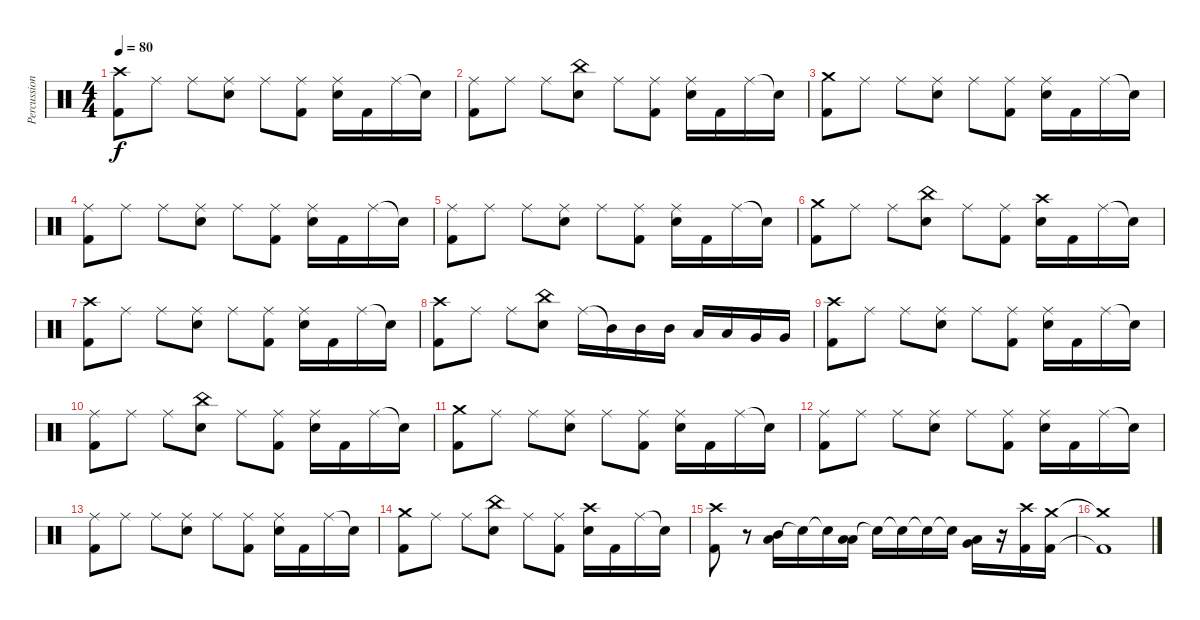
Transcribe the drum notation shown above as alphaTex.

\track ("Percussion" "Percussion") {instrument percussion}
\staff {score}
\articulation defaults
\ts (4 4)
\tempo 80
\clef neutral
\ks c
("Kick (hit) 2" "Crash high (hit)").8{dy f} "Ride (middle)".8 "Ride (middle)".8 ("Electric Snare (hit)" "Ride (middle)").8 "Ride (middle)".8 ("Kick (hit) 2" "Ride (middle)").8 ("Electric Snare (hit)" "Ride (middle)").16 "Kick (hit) 2".16 "Ride (middle)".16 "Snare (hit)"{t}.16 |
("Kick (hit) 2" "Ride (middle)").8 "Ride (middle)".8 "Ride (middle)".8 ("Electric Snare (hit)" "China (hit)").8 "Ride (middle)".8 ("Kick (hit) 2" "Ride (middle)").8 ("Electric Snare (hit)" "Ride (middle)").16 "Kick (hit) 2".16 "Ride (middle)".16 "Snare (hit)"{t}.16 |
("Kick (hit) 2" "Crash medium (hit)").8 "Ride (middle)".8 "Ride (middle)".8 ("Electric Snare (hit)" "Ride (middle)").8 "Ride (middle)".8 ("Kick (hit) 2" "Ride (middle)").8 ("Electric Snare (hit)" "Ride (middle)").16 "Kick (hit) 2".16 "Ride (middle)".16 "Snare (hit)"{t}.16 |
("Kick (hit) 2" "Ride (middle)").8 "Ride (middle)".8 "Ride (middle)".8 ("Electric Snare (hit)" "Ride (middle)").8 "Ride (middle)".8 ("Kick (hit) 2" "Ride (middle)").8 ("Electric Snare (hit)" "Ride (middle)").16 "Kick (hit) 2".16 "Ride (middle)".16 "Snare (hit)"{t}.16 |
("Kick (hit) 2" "Ride (middle)").8 "Ride (middle)".8 "Ride (middle)".8 ("Electric Snare (hit)" "Ride (middle)").8 "Ride (middle)".8 ("Kick (hit) 2" "Ride (middle)").8 ("Electric Snare (hit)" "Ride (middle)").16 "Kick (hit) 2".16 "Ride (middle)".16 "Snare (hit)"{t}.16 |
("Kick (hit) 2" "Crash medium (hit)").8 "Ride (middle)".8 "Ride (middle)".8 ("Electric Snare (hit)" "China (hit)").8 "Ride (middle)".8 ("Kick (hit) 2" "Ride (middle)").8 ("Electric Snare (hit)" "Crash high (hit)").16 "Kick (hit) 2".16 "Ride (middle)".16 "Snare (hit)"{t}.16 |
("Kick (hit) 2" "Crash high (hit)").8 "Ride (middle)".8 "Ride (middle)".8 ("Electric Snare (hit)" "Ride (middle)").8 "Ride (middle)".8 ("Kick (hit) 2" "Ride (middle)").8 ("Electric Snare (hit)" "Ride (middle)").16 "Kick (hit) 2".16 "Ride (middle)".16 "Snare (hit)"{t}.16 |
("Kick (hit) 2" "Crash high (hit)").8 "Ride (middle)".8 "Ride (middle)".8 ("Electric Snare (hit)" "China (hit)").8 "Ride (middle)".16 "Mid Tom (hit)"{t}.16 "Mid Tom (hit)".16 "Mid Tom (hit)".16 "Low Tom (hit)".16 "Low Tom (hit)".16 "Very Low Tom (hit)".16 "Very Low Tom (hit)".16 |
("Kick (hit) 2" "Crash high (hit)").8 "Ride (middle)".8 "Ride (middle)".8 ("Electric Snare (hit)" "Ride (middle)").8 "Ride (middle)".8 ("Kick (hit) 2" "Ride (middle)").8 ("Electric Snare (hit)" "Ride (middle)").16 "Kick (hit) 2".16 "Ride (middle)".16 "Snare (hit)"{t}.16 |
("Kick (hit) 2" "Ride (middle)").8 "Ride (middle)".8 "Ride (middle)".8 ("Electric Snare (hit)" "China (hit)").8 "Ride (middle)".8 ("Kick (hit) 2" "Ride (middle)").8 ("Electric Snare (hit)" "Ride (middle)").16 "Kick (hit) 2".16 "Ride (middle)".16 "Snare (hit)"{t}.16 |
("Kick (hit) 2" "Crash medium (hit)").8 "Ride (middle)".8 "Ride (middle)".8 ("Electric Snare (hit)" "Ride (middle)").8 "Ride (middle)".8 ("Kick (hit) 2" "Ride (middle)").8 ("Electric Snare (hit)" "Ride (middle)").16 "Kick (hit) 2".16 "Ride (middle)".16 "Snare (hit)"{t}.16 |
("Kick (hit) 2" "Ride (middle)").8 "Ride (middle)".8 "Ride (middle)".8 ("Electric Snare (hit)" "Ride (middle)").8 "Ride (middle)".8 ("Kick (hit) 2" "Ride (middle)").8 ("Electric Snare (hit)" "Ride (middle)").16 "Kick (hit) 2".16 "Ride (middle)".16 "Snare (hit)"{t}.16 |
("Kick (hit) 2" "Ride (middle)").8 "Ride (middle)".8 "Ride (middle)".8 ("Electric Snare (hit)" "Ride (middle)").8 "Ride (middle)".8 ("Kick (hit) 2" "Ride (middle)").8 ("Electric Snare (hit)" "Ride (middle)").16 "Kick (hit) 2".16 "Ride (middle)".16 "Snare (hit)"{t}.16 |
("Kick (hit) 2" "Crash medium (hit)").8 "Ride (middle)".8 "Ride (middle)".8 ("Electric Snare (hit)" "China (hit)").8 "Ride (middle)".8 ("Kick (hit) 2" "Ride (middle)").8 ("Electric Snare (hit)" "Crash high (hit)").16 "Kick (hit) 2".16 "Ride (middle)".16 "Snare (hit)"{t}.16 |
("Kick (hit) 2" "Crash high (hit)").8 r.8 ("Low Floor Tom (hit)" "Mid Tom (hit)").16{bd 480} "Snare (hit)"{t}.16 "Snare (hit)"{t}.16 ("Low Floor Tom (hit)" "Low Tom (hit)").16{bd 480} "Snare (hit)"{t}.16 "Snare (hit)"{t}.16 "Snare (hit)"{t}.16 "Snare (hit)"{t}.16 ("Low Floor Tom (hit)" "Very Low Tom (hit)").16{bd 480} r.16 ("Kick (hit) 2" "Crash high (hit)").16 ("Kick (hit) 2" "Crash medium (hit)").16 |
("Kick (hit) 2"{t} "Crash medium (hit)"{t}).1
